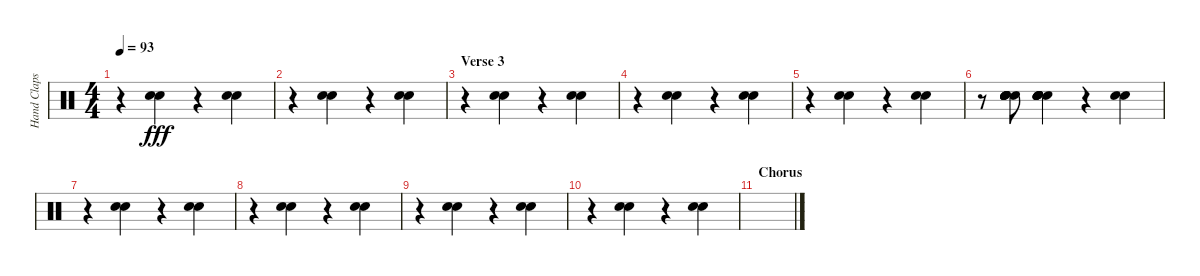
\track ("Hand Claps" "Hand Claps") {instrument percussion}
\staff {score}
\articulation defaults
\ts (4 4)
\tempo 93
\clef neutral
\ks c
r.4{dy fff} ("Hand Clap (hit)" "Hand Clap (hit)").4 r.4 ("Hand Clap (hit)" "Hand Clap (hit)").4 |
r.4 ("Hand Clap (hit)" "Hand Clap (hit)").4 r.4 ("Hand Clap (hit)" "Hand Clap (hit)").4 |
\section ("" "Verse 3")
r.4 ("Hand Clap (hit)" "Hand Clap (hit)").4 r.4 ("Hand Clap (hit)" "Hand Clap (hit)").4 |
r.4 ("Hand Clap (hit)" "Hand Clap (hit)").4 r.4 ("Hand Clap (hit)" "Hand Clap (hit)").4 |
r.4 ("Hand Clap (hit)" "Hand Clap (hit)").4 r.4 ("Hand Clap (hit)" "Hand Clap (hit)").4 |
r.8 ("Hand Clap (hit)" "Hand Clap (hit)" "Hand Clap (hit)" "Hand Clap (hit)" "Hand Clap (hit)" "Hand Clap (hit)").8 ("Hand Clap (hit)" "Hand Clap (hit)" "Hand Clap (hit)" "Hand Clap (hit)" "Hand Clap (hit)" "Hand Clap (hit)").4 r.4 ("Hand Clap (hit)" "Hand Clap (hit)").4 |
r.4 ("Hand Clap (hit)" "Hand Clap (hit)").4 r.4 ("Hand Clap (hit)" "Hand Clap (hit)").4 |
r.4 ("Hand Clap (hit)" "Hand Clap (hit)").4 r.4 ("Hand Clap (hit)" "Hand Clap (hit)").4 |
r.4 ("Hand Clap (hit)" "Hand Clap (hit)").4 r.4 ("Hand Clap (hit)" "Hand Clap (hit)").4 |
r.4 ("Hand Clap (hit)" "Hand Clap (hit)").4 r.4 ("Hand Clap (hit)" "Hand Clap (hit)").4 |
\section ("" "Chorus")
